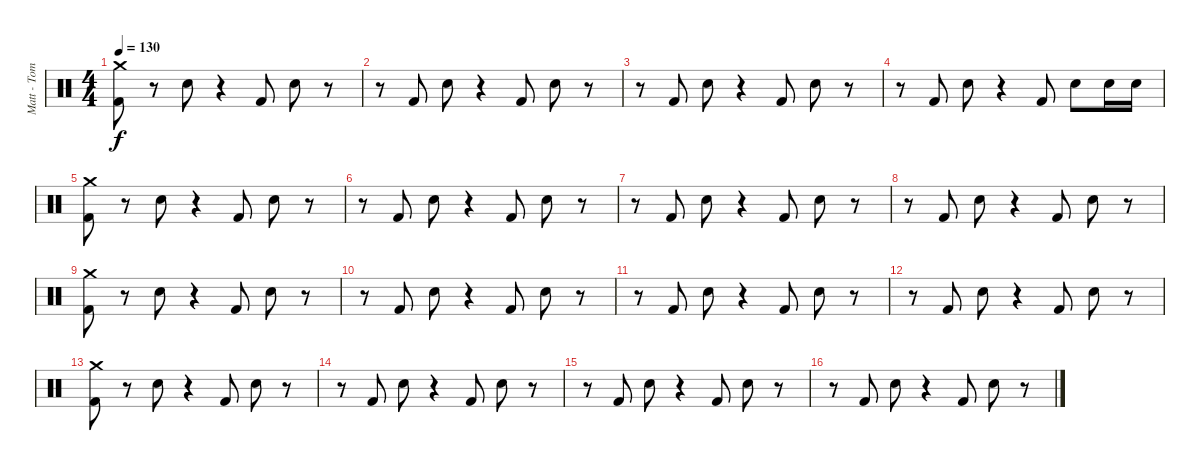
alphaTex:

\track ("Matt - Tom" "Matt - Tom") {instrument percussion}
\staff {score}
\articulation defaults
\ts (4 4)
\tempo 130
\clef neutral
\ks c
("Crash medium (hit)" "Kick (hit) 2").8{dy f} r.8 "Electric Snare (hit)".8 r.4 "Kick (hit) 2".8 "Electric Snare (hit)".8 r.8 |
r.8 "Kick (hit) 2".8 "Electric Snare (hit)".8 r.4 "Kick (hit) 2".8 "Electric Snare (hit)".8 r.8 |
r.8 "Kick (hit) 2".8 "Electric Snare (hit)".8 r.4 "Kick (hit) 2".8 "Electric Snare (hit)".8 r.8 |
r.8 "Kick (hit) 2".8 "Electric Snare (hit)".8 r.4 "Kick (hit) 2".8 "Electric Snare (hit)".8 "Electric Snare (hit)".16 "Electric Snare (hit)".16 |
("Crash medium (hit)" "Kick (hit) 2").8 r.8 "Electric Snare (hit)".8 r.4 "Kick (hit) 2".8 "Electric Snare (hit)".8 r.8 |
r.8 "Kick (hit) 2".8 "Electric Snare (hit)".8 r.4 "Kick (hit) 2".8 "Electric Snare (hit)".8 r.8 |
r.8 "Kick (hit) 2".8 "Electric Snare (hit)".8 r.4 "Kick (hit) 2".8 "Electric Snare (hit)".8 r.8 |
r.8 "Kick (hit) 2".8 "Electric Snare (hit)".8 r.4 "Kick (hit) 2".8 "Electric Snare (hit)".8 r.8 |
("Crash medium (hit)" "Kick (hit) 2").8 r.8 "Electric Snare (hit)".8 r.4 "Kick (hit) 2".8 "Electric Snare (hit)".8 r.8 |
r.8 "Kick (hit) 2".8 "Electric Snare (hit)".8 r.4 "Kick (hit) 2".8 "Electric Snare (hit)".8 r.8 |
r.8 "Kick (hit) 2".8 "Electric Snare (hit)".8 r.4 "Kick (hit) 2".8 "Electric Snare (hit)".8 r.8 |
r.8 "Kick (hit) 2".8 "Electric Snare (hit)".8 r.4 "Kick (hit) 2".8 "Electric Snare (hit)".8 r.8 |
("Crash medium (hit)" "Kick (hit) 2").8 r.8 "Electric Snare (hit)".8 r.4 "Kick (hit) 2".8 "Electric Snare (hit)".8 r.8 |
r.8 "Kick (hit) 2".8 "Electric Snare (hit)".8 r.4 "Kick (hit) 2".8 "Electric Snare (hit)".8 r.8 |
r.8 "Kick (hit) 2".8 "Electric Snare (hit)".8 r.4 "Kick (hit) 2".8 "Electric Snare (hit)".8 r.8 |
r.8 "Kick (hit) 2".8 "Electric Snare (hit)".8 r.4 "Kick (hit) 2".8 "Electric Snare (hit)".8 r.8
